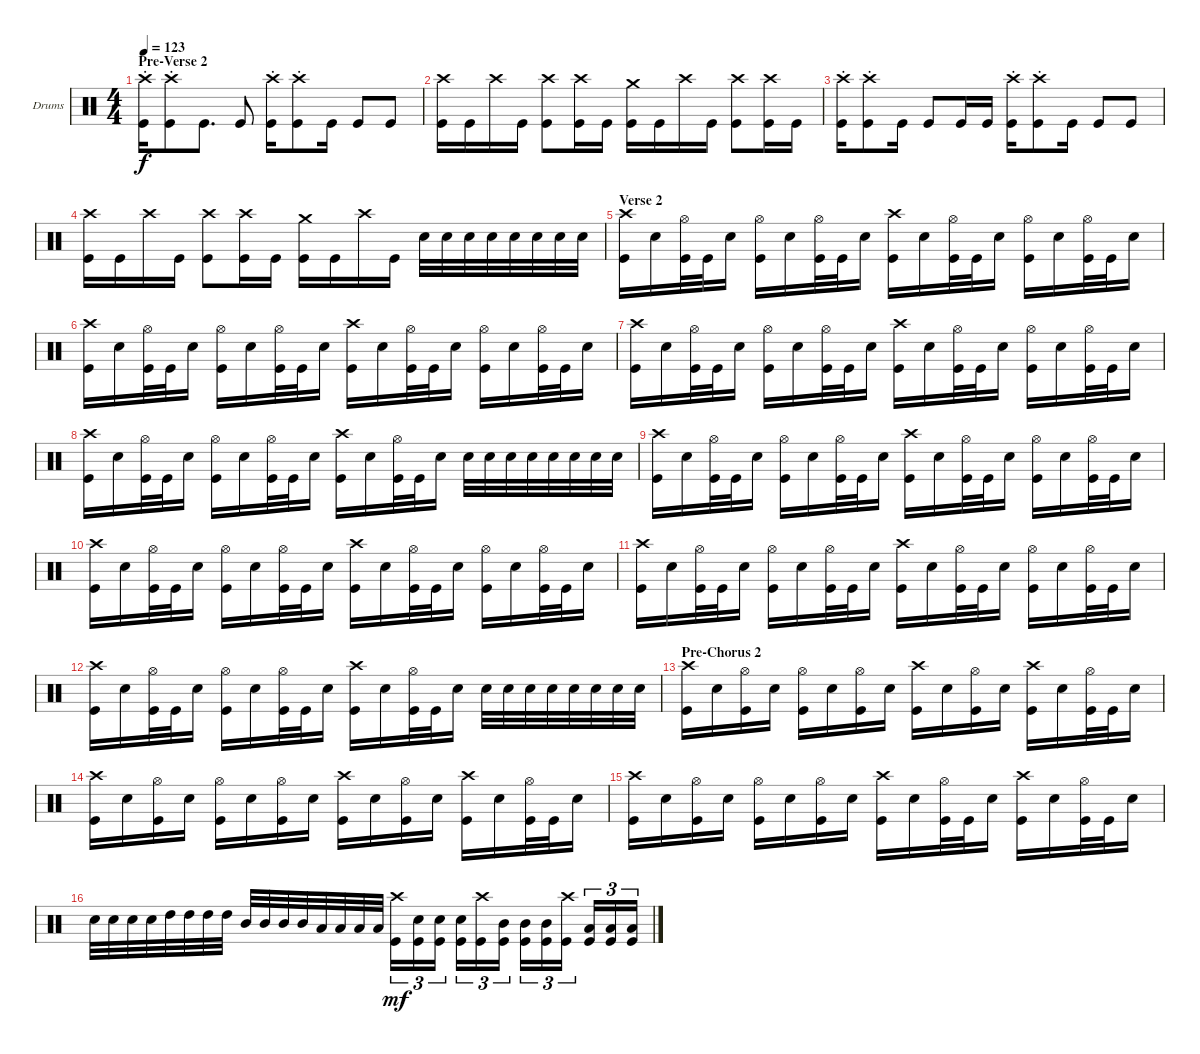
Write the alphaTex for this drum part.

\defaultSystemsLayout 4
\bracketExtendMode groupsimilarinstruments
\firstSystemTrackNameOrientation horizontal
\otherSystemsTrackNameOrientation horizontal
\track ("Drumkit" "Drums") {instrument percussion}
\staff {score}
\articulation defaults
\ts (4 4)
\section ("" "Pre-Verse 2")
\tempo 123
\clef neutral
\scale
0.333333
\ks c
("Kick (hit)"{st} "Crash high (hit)"{st}).16{dy f} ("Kick (hit)"{st} "Crash high (hit)"{st}).8 "Kick (hit)".8{d} "Kick (hit)".8 ("Kick (hit)"{st} "Crash high (hit)"{st}).16 ("Kick (hit)"{st} "Crash high (hit)"{st}).8 "Kick (hit)".16 "Kick (hit)".8 "Kick (hit)".8 |
\scale
0.333333 ("Kick (hit)" "Crash high (hit)").16 "Kick (hit)".16 "Crash high (hit)".16 "Kick (hit)".16 ("Kick (hit)" "Crash high (hit)").8 ("Kick (hit)" "Crash high (hit)").16 "Kick (hit)".16 ("Kick (hit)" "Crash medium (hit)").16 "Kick (hit)".16 "Crash high (hit)".16 "Kick (hit)".16 ("Kick (hit)" "Crash high (hit)").8 ("Kick (hit)" "Crash high (hit)").16 "Kick (hit)".16 |
\scale
0.333333 ("Kick (hit)"{st} "Crash high (hit)"{st}).16 ("Kick (hit)"{st} "Crash high (hit)"{st}).8 "Kick (hit)".16 "Kick (hit)".8 "Kick (hit)".16 "Kick (hit)".16 ("Kick (hit)"{st} "Crash high (hit)"{st}).16 ("Kick (hit)"{st} "Crash high (hit)"{st}).8 "Kick (hit)".16 "Kick (hit)".8 "Kick (hit)".8 |
\scale
0.333333 ("Kick (hit)" "Crash high (hit)").16 "Kick (hit)".16 "Crash high (hit)".16 "Kick (hit)".16 ("Kick (hit)" "Crash high (hit)").8 ("Kick (hit)" "Crash high (hit)").16 "Kick (hit)".16 ("Kick (hit)" "Crash medium (hit)").16 "Kick (hit)".16 "Crash high (hit)".16 "Kick (hit)".16 "Snare (hit) 2".32 "Snare (hit) 2".32 "Snare (hit) 2".32 "Snare (hit) 2".32 "Snare (hit) 2".32 "Snare (hit) 2".32 "Snare (hit) 2".32 "Snare (hit) 2".32 |
\section ("" "Verse 2")
\scale
0.333333 ("Kick (hit)" "Crash high (hit)").16 "Snare (hit) 2".16 ("Kick (hit)" "Hi-Hat (open)").32 "Kick (hit)".32 "Snare (hit) 2".16 ("Kick (hit)" "Hi-Hat (open)").16 "Snare (hit) 2".16 ("Kick (hit)" "Hi-Hat (open)").32 "Kick (hit)".32 "Snare (hit) 2".16 ("Kick (hit)" "Crash high (hit)").16 "Snare (hit) 2".16 ("Kick (hit)" "Hi-Hat (open)").32 "Kick (hit)".32 "Snare (hit) 2".16 ("Kick (hit)" "Hi-Hat (open)").16 "Snare (hit) 2".16 ("Kick (hit)" "Hi-Hat (open)").32 "Kick (hit)".32 "Snare (hit) 2".16 |
\scale
0.333333 ("Kick (hit)" "Crash high (hit)").16 "Snare (hit) 2".16 ("Kick (hit)" "Hi-Hat (open)").32 "Kick (hit)".32 "Snare (hit) 2".16 ("Kick (hit)" "Hi-Hat (open)").16 "Snare (hit) 2".16 ("Kick (hit)" "Hi-Hat (open)").32 "Kick (hit)".32 "Snare (hit) 2".16 ("Kick (hit)" "Crash high (hit)").16 "Snare (hit) 2".16 ("Kick (hit)" "Hi-Hat (open)").32 "Kick (hit)".32 "Snare (hit) 2".16 ("Kick (hit)" "Hi-Hat (open)").16 "Snare (hit) 2".16 ("Kick (hit)" "Hi-Hat (open)").32 "Kick (hit)".32 "Snare (hit) 2".16 |
\scale
0.333333 ("Kick (hit)" "Crash high (hit)").16 "Snare (hit) 2".16 ("Kick (hit)" "Hi-Hat (open)").32 "Kick (hit)".32 "Snare (hit) 2".16 ("Kick (hit)" "Hi-Hat (open)").16 "Snare (hit) 2".16 ("Kick (hit)" "Hi-Hat (open)").32 "Kick (hit)".32 "Snare (hit) 2".16 ("Kick (hit)" "Crash high (hit)").16 "Snare (hit) 2".16 ("Kick (hit)" "Hi-Hat (open)").32 "Kick (hit)".32 "Snare (hit) 2".16 ("Kick (hit)" "Hi-Hat (open)").16 "Snare (hit) 2".16 ("Kick (hit)" "Hi-Hat (open)").32 "Kick (hit)".32 "Snare (hit) 2".16 |
\scale
0.333333 ("Kick (hit)" "Crash high (hit)").16 "Snare (hit) 2".16 ("Kick (hit)" "Hi-Hat (open)").32 "Kick (hit)".32 "Snare (hit) 2".16 ("Kick (hit)" "Hi-Hat (open)").16 "Snare (hit) 2".16 ("Kick (hit)" "Hi-Hat (open)").32 "Kick (hit)".32 "Snare (hit) 2".16 ("Kick (hit)" "Crash high (hit)").16 "Snare (hit) 2".16 ("Kick (hit)" "Hi-Hat (open)").32 "Kick (hit)".32 "Snare (hit) 2".16 "Snare (hit) 2".32 "Snare (hit) 2".32 "Snare (hit) 2".32 "Snare (hit) 2".32 "Snare (hit) 2".32 "Snare (hit) 2".32 "Snare (hit) 2".32 "Snare (hit) 2".32 |
\scale
0.333333 ("Kick (hit)" "Crash high (hit)").16 "Snare (hit) 2".16 ("Kick (hit)" "Hi-Hat (open)").32 "Kick (hit)".32 "Snare (hit) 2".16 ("Kick (hit)" "Hi-Hat (open)").16 "Snare (hit) 2".16 ("Kick (hit)" "Hi-Hat (open)").32 "Kick (hit)".32 "Snare (hit) 2".16 ("Kick (hit)" "Crash high (hit)").16 "Snare (hit) 2".16 ("Kick (hit)" "Hi-Hat (open)").32 "Kick (hit)".32 "Snare (hit) 2".16 ("Kick (hit)" "Hi-Hat (open)").16 "Snare (hit) 2".16 ("Kick (hit)" "Hi-Hat (open)").32 "Kick (hit)".32 "Snare (hit) 2".16 |
\scale
0.333333 ("Kick (hit)" "Crash high (hit)").16 "Snare (hit) 2".16 ("Kick (hit)" "Hi-Hat (open)").32 "Kick (hit)".32 "Snare (hit) 2".16 ("Kick (hit)" "Hi-Hat (open)").16 "Snare (hit) 2".16 ("Kick (hit)" "Hi-Hat (open)").32 "Kick (hit)".32 "Snare (hit) 2".16 ("Kick (hit)" "Crash high (hit)").16 "Snare (hit) 2".16 ("Kick (hit)" "Hi-Hat (open)").32 "Kick (hit)".32 "Snare (hit) 2".16 ("Kick (hit)" "Hi-Hat (open)").16 "Snare (hit) 2".16 ("Kick (hit)" "Hi-Hat (open)").32 "Kick (hit)".32 "Snare (hit) 2".16 |
\scale
0.333333 ("Kick (hit)" "Crash high (hit)").16 "Snare (hit) 2".16 ("Kick (hit)" "Hi-Hat (open)").32 "Kick (hit)".32 "Snare (hit) 2".16 ("Kick (hit)" "Hi-Hat (open)").16 "Snare (hit) 2".16 ("Kick (hit)" "Hi-Hat (open)").32 "Kick (hit)".32 "Snare (hit) 2".16 ("Kick (hit)" "Crash high (hit)").16 "Snare (hit) 2".16 ("Kick (hit)" "Hi-Hat (open)").32 "Kick (hit)".32 "Snare (hit) 2".16 ("Kick (hit)" "Hi-Hat (open)").16 "Snare (hit) 2".16 ("Kick (hit)" "Hi-Hat (open)").32 "Kick (hit)".32 "Snare (hit) 2".16 |
\scale
0.333333 ("Kick (hit)" "Crash high (hit)").16 "Snare (hit) 2".16 ("Kick (hit)" "Hi-Hat (open)").32 "Kick (hit)".32 "Snare (hit) 2".16 ("Kick (hit)" "Hi-Hat (open)").16 "Snare (hit) 2".16 ("Kick (hit)" "Hi-Hat (open)").32 "Kick (hit)".32 "Snare (hit) 2".16 ("Kick (hit)" "Crash high (hit)").16 "Snare (hit) 2".16 ("Kick (hit)" "Hi-Hat (open)").32 "Kick (hit)".32 "Snare (hit) 2".16 "Snare (hit) 2".32 "Snare (hit) 2".32 "Snare (hit) 2".32 "Snare (hit) 2".32 "Snare (hit) 2".32 "Snare (hit) 2".32 "Snare (hit) 2".32 "Snare (hit) 2".32 |
\section ("" "Pre-Chorus 2")
\scale
0.333333 ("Kick (hit)" "Crash high (hit)").16 "Snare (hit) 2".16 ("Kick (hit)" "Hi-Hat (open)").16 "Snare (hit) 2".16 ("Kick (hit)" "Hi-Hat (open)").16 "Snare (hit) 2".16 ("Kick (hit)" "Hi-Hat (open)").16 "Snare (hit) 2".16 ("Kick (hit)" "Crash high (hit)").16 "Snare (hit) 2".16 ("Kick (hit)" "Hi-Hat (open)").16 "Snare (hit) 2".16 ("Kick (hit)" "Crash high (hit)").16 "Snare (hit) 2".16 ("Kick (hit)" "Hi-Hat (open)").32 "Kick (hit)".32 "Snare (hit) 2".16 |
\scale
0.333333 ("Kick (hit)" "Crash high (hit)").16 "Snare (hit) 2".16 ("Kick (hit)" "Hi-Hat (open)").16 "Snare (hit) 2".16 ("Kick (hit)" "Hi-Hat (open)").16 "Snare (hit) 2".16 ("Kick (hit)" "Hi-Hat (open)").16 "Snare (hit) 2".16 ("Kick (hit)" "Crash high (hit)").16 "Snare (hit) 2".16 ("Kick (hit)" "Hi-Hat (open)").16 "Snare (hit) 2".16 ("Kick (hit)" "Crash high (hit)").16 "Snare (hit) 2".16 ("Kick (hit)" "Hi-Hat (open)").32 "Kick (hit)".32 "Snare (hit) 2".16 |
\scale
0.333333 ("Kick (hit)" "Crash high (hit)").16 "Snare (hit) 2".16 ("Kick (hit)" "Hi-Hat (open)").16 "Snare (hit) 2".16 ("Kick (hit)" "Hi-Hat (open)").16 "Snare (hit) 2".16 ("Kick (hit)" "Hi-Hat (open)").16 "Snare (hit) 2".16 ("Kick (hit)" "Crash high (hit)").16 "Snare (hit) 2".16 ("Kick (hit)" "Hi-Hat (open)").32 "Kick (hit)".32 "Snare (hit) 2".16 ("Kick (hit)" "Crash high (hit)").16 "Snare (hit) 2".16 ("Kick (hit)" "Hi-Hat (open)").32 "Kick (hit)".32 "Snare (hit) 2".16 |
\scale
0.333333 "Snare (hit) 2".32 "Snare (hit) 2".32 "Snare (hit) 2".32 "Snare (hit) 2".32 "High Tom (hit)".32 "High Tom (hit)".32 "High Tom (hit)".32 "High Tom (hit)".32 "Mid Tom (hit)".32 "Mid Tom (hit)".32 "Mid Tom (hit)".32 "Mid Tom (hit)".32 "Low Tom (hit)".32 "Low Tom (hit)".32 "Low Tom (hit)".32 "Low Tom (hit)".32 ("Kick (hit)" "Crash high (hit)").16{tu (3 2) dy mf} ("Snare (hit) 2" "Kick (hit)").16{tu (3 2)} ("Snare (hit) 2" "Kick (hit)").16{tu (3 2)} ("Snare (hit) 2" "Kick (hit)").16{tu (3 2)} ("Kick (hit)" "Crash high (hit)").16{tu (3 2)} ("Mid Tom (hit)" "Kick (hit)").16{tu (3 2)} ("Mid Tom (hit)" "Kick (hit)").16{tu (3 2)} ("Mid Tom (hit)" "Kick (hit)").16{tu (3 2)} ("Kick (hit)" "Crash high (hit)").16{tu (3 2)} ("Low Tom (hit)" "Kick (hit)").16{tu (3 2)} ("Low Tom (hit)" "Kick (hit)").16{tu (3 2)} ("Low Tom (hit)" "Kick (hit)").16{tu (3 2)}
